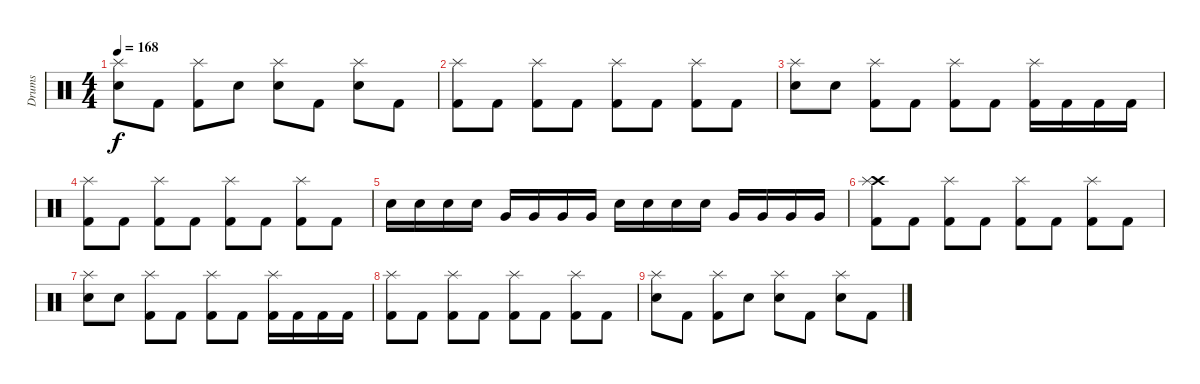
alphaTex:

\track ("Drums" "Drums") {instrument percussion}
\staff {score}
\articulation defaults
\ts (4 4)
\tempo 168
\clef neutral
\ks c
("Electric Snare (hit)" "Splash (hit)").8{dy f} "Kick (hit) 2".8 ("Kick (hit) 2" "Splash (hit)").8 "Electric Snare (hit)".8 ("Electric Snare (hit)" "Splash (hit)").8 "Kick (hit) 2".8 ("Electric Snare (hit)" "Splash (hit)").8 "Kick (hit) 2".8 |
("Kick (hit) 2" "Splash (hit)").8 "Kick (hit) 2".8 ("Kick (hit) 2" "Splash (hit)").8 "Kick (hit) 2".8 ("Kick (hit) 2" "Splash (hit)").8 "Kick (hit) 2".8 ("Kick (hit) 2" "Splash (hit)").8 "Kick (hit) 2".8 |
("Electric Snare (hit)" "Splash (hit)").8 "Electric Snare (hit)".8 ("Kick (hit) 2" "Splash (hit)").8 "Kick (hit) 2".8 ("Kick (hit) 2" "Splash (hit)").8 "Kick (hit) 2".8 ("Kick (hit) 2" "Splash (hit)").16 "Kick (hit) 2".16 "Kick (hit) 2".16 "Kick (hit) 2".16 |
("Kick (hit) 2" "Splash (hit)").8 "Kick (hit) 2".8 ("Kick (hit) 2" "Splash (hit)").8 "Kick (hit) 2".8 ("Kick (hit) 2" "Splash (hit)").8 "Kick (hit) 2".8 ("Kick (hit) 2" "Splash (hit)").8 "Kick (hit) 2".8 |
"Electric Snare (hit)".16 "Electric Snare (hit)".16 "Electric Snare (hit)".16 "Electric Snare (hit)".16 "Very Low Tom (hit)".16 "Very Low Tom (hit)".16 "Very Low Tom (hit)".16 "Very Low Tom (hit)".16 "Electric Snare (hit)".16 "Electric Snare (hit)".16 "Electric Snare (hit)".16 "Electric Snare (hit)".16 "Very Low Tom (hit)".16 "Very Low Tom (hit)".16 "Very Low Tom (hit)".16 "Very Low Tom (hit)".16 |
("Crash high (hit)" "Kick (hit) 2" "Splash (hit)").8 "Kick (hit) 2".8 ("Kick (hit) 2" "Splash (hit)").8 "Kick (hit) 2".8 ("Kick (hit) 2" "Splash (hit)").8 "Kick (hit) 2".8 ("Kick (hit) 2" "Splash (hit)").8 "Kick (hit) 2".8 |
("Electric Snare (hit)" "Splash (hit)").8 "Electric Snare (hit)".8 ("Kick (hit) 2" "Splash (hit)").8 "Kick (hit) 2".8 ("Kick (hit) 2" "Splash (hit)").8 "Kick (hit) 2".8 ("Kick (hit) 2" "Splash (hit)").16 "Kick (hit) 2".16 "Kick (hit) 2".16 "Kick (hit) 2".16 |
("Kick (hit) 2" "Splash (hit)").8 "Kick (hit) 2".8 ("Kick (hit) 2" "Splash (hit)").8 "Kick (hit) 2".8 ("Kick (hit) 2" "Splash (hit)").8 "Kick (hit) 2".8 ("Kick (hit) 2" "Splash (hit)").8 "Kick (hit) 2".8 |
("Electric Snare (hit)" "Splash (hit)").8 "Kick (hit) 2".8 ("Kick (hit) 2" "Splash (hit)").8 "Electric Snare (hit)".8 ("Electric Snare (hit)" "Splash (hit)").8 "Kick (hit) 2".8 ("Electric Snare (hit)" "Splash (hit)").8 "Kick (hit) 2".8
